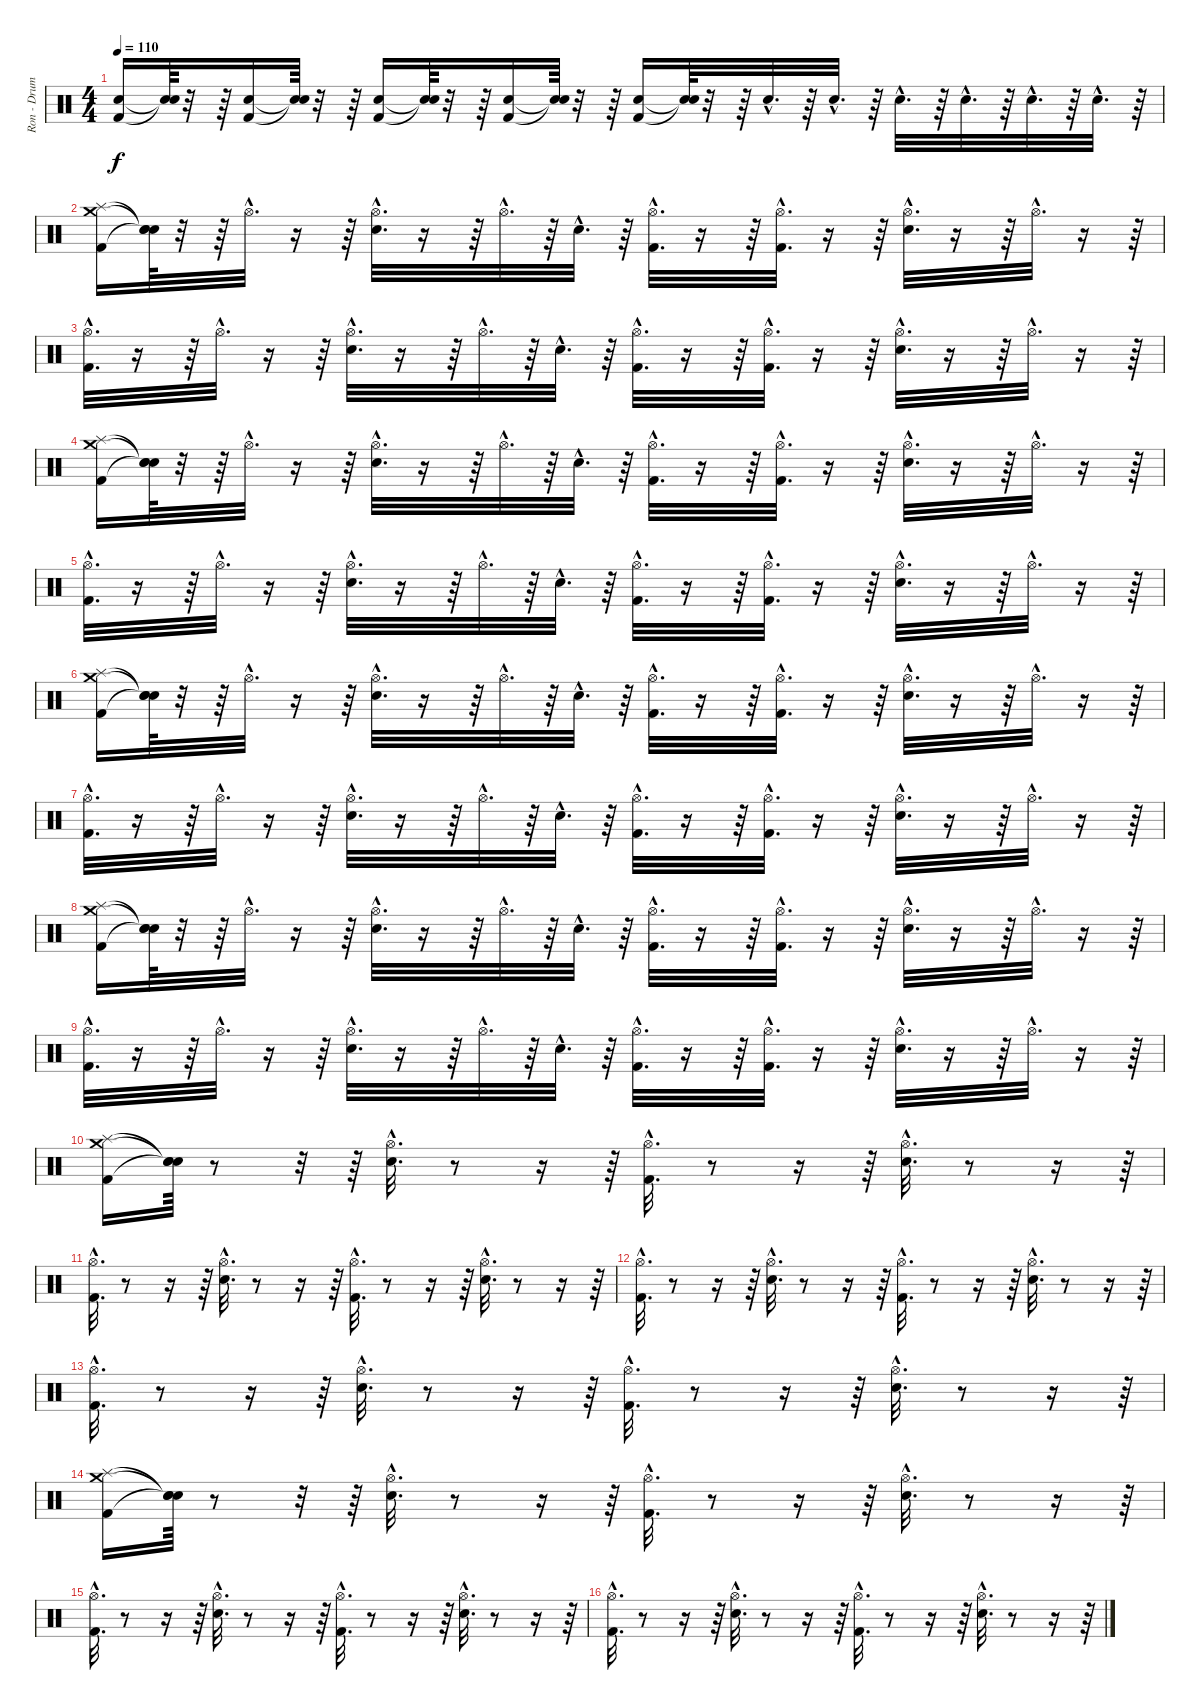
\track ("Ron - Drums" "Ron - Drum") {instrument percussion}
\staff {score}
\articulation defaults
\ts (4 4)
\tempo 110
\clef neutral
\ks c
("Electric Snare (hit)" "Kick (hit) 2").16{dy f} ("Snare (hit)"{t} "Snare (hit)"{t}).64 r.32 r.64 ("Electric Snare (hit)" "Kick (hit) 2").16 ("Snare (hit)"{t} "Snare (hit)"{t}).64 r.32 r.64 ("Electric Snare (hit)" "Kick (hit) 2").16 ("Snare (hit)"{t} "Snare (hit)"{t}).64 r.32 r.64 ("Electric Snare (hit)" "Kick (hit) 2").16 ("Snare (hit)"{t} "Snare (hit)"{t}).64 r.32 r.64 ("Electric Snare (hit)" "Kick (hit) 2").16 ("Snare (hit)"{t} "Snare (hit)"{t}).64 r.32 r.64 "Electric Snare (hit)"{hac}.32{d} r.64 "Electric Snare (hit)"{hac}.32{d} r.64 "Electric Snare (hit)"{hac}.32{d} r.64 "Electric Snare (hit)"{hac}.32{d} r.64 "Electric Snare (hit)"{hac}.32{d} r.64 "Electric Snare (hit)"{hac}.32{d} r.64 |
("Crash medium (hit)" "Splash (hit)" "Kick (hit) 2").16 ("Snare (hit)"{t} "Snare (hit)"{t} "Snare (hit)"{t}).64 r.32 r.64 "Hi-Hat (open)"{hac}.32{d} r.16 r.64 ("Hi-Hat (open)"{hac} "Electric Snare (hit)"{hac}).32{d} r.16 r.64 "Hi-Hat (open)"{hac}.32{d} r.64 "Electric Snare (hit)"{hac}.32{d} r.64 ("Hi-Hat (open)"{hac} "Kick (hit) 2"{hac}).32{d} r.16 r.64 ("Hi-Hat (open)"{hac} "Kick (hit) 2"{hac}).32{d} r.16 r.64 ("Hi-Hat (open)"{hac} "Electric Snare (hit)"{hac}).32{d} r.16 r.64 "Hi-Hat (open)"{hac}.32{d} r.16 r.64 |
("Hi-Hat (open)"{hac} "Kick (hit) 2"{hac}).32{d} r.16 r.64 "Hi-Hat (open)"{hac}.32{d} r.16 r.64 ("Hi-Hat (open)"{hac} "Electric Snare (hit)"{hac}).32{d} r.16 r.64 "Hi-Hat (open)"{hac}.32{d} r.64 "Electric Snare (hit)"{hac}.32{d} r.64 ("Hi-Hat (open)"{hac} "Kick (hit) 2"{hac}).32{d} r.16 r.64 ("Hi-Hat (open)"{hac} "Kick (hit) 2"{hac}).32{d} r.16 r.64 ("Hi-Hat (open)"{hac} "Electric Snare (hit)"{hac}).32{d} r.16 r.64 "Hi-Hat (open)"{hac}.32{d} r.16 r.64 |
("Crash medium (hit)" "Splash (hit)" "Kick (hit) 2").16 ("Snare (hit)"{t} "Snare (hit)"{t} "Snare (hit)"{t}).64 r.32 r.64 "Hi-Hat (open)"{hac}.32{d} r.16 r.64 ("Hi-Hat (open)"{hac} "Electric Snare (hit)"{hac}).32{d} r.16 r.64 "Hi-Hat (open)"{hac}.32{d} r.64 "Electric Snare (hit)"{hac}.32{d} r.64 ("Hi-Hat (open)"{hac} "Kick (hit) 2"{hac}).32{d} r.16 r.64 ("Hi-Hat (open)"{hac} "Kick (hit) 2"{hac}).32{d} r.16 r.64 ("Hi-Hat (open)"{hac} "Electric Snare (hit)"{hac}).32{d} r.16 r.64 "Hi-Hat (open)"{hac}.32{d} r.16 r.64 |
("Hi-Hat (open)"{hac} "Kick (hit) 2"{hac}).32{d} r.16 r.64 "Hi-Hat (open)"{hac}.32{d} r.16 r.64 ("Hi-Hat (open)"{hac} "Electric Snare (hit)"{hac}).32{d} r.16 r.64 "Hi-Hat (open)"{hac}.32{d} r.64 "Electric Snare (hit)"{hac}.32{d} r.64 ("Hi-Hat (open)"{hac} "Kick (hit) 2"{hac}).32{d} r.16 r.64 ("Hi-Hat (open)"{hac} "Kick (hit) 2"{hac}).32{d} r.16 r.64 ("Hi-Hat (open)"{hac} "Electric Snare (hit)"{hac}).32{d} r.16 r.64 "Hi-Hat (open)"{hac}.32{d} r.16 r.64 |
("Crash medium (hit)" "Splash (hit)" "Kick (hit) 2").16 ("Snare (hit)"{t} "Snare (hit)"{t} "Snare (hit)"{t}).64 r.32 r.64 "Hi-Hat (open)"{hac}.32{d} r.16 r.64 ("Hi-Hat (open)"{hac} "Electric Snare (hit)"{hac}).32{d} r.16 r.64 "Hi-Hat (open)"{hac}.32{d} r.64 "Electric Snare (hit)"{hac}.32{d} r.64 ("Hi-Hat (open)"{hac} "Kick (hit) 2"{hac}).32{d} r.16 r.64 ("Hi-Hat (open)"{hac} "Kick (hit) 2"{hac}).32{d} r.16 r.64 ("Hi-Hat (open)"{hac} "Electric Snare (hit)"{hac}).32{d} r.16 r.64 "Hi-Hat (open)"{hac}.32{d} r.16 r.64 |
("Hi-Hat (open)"{hac} "Kick (hit) 2"{hac}).32{d} r.16 r.64 "Hi-Hat (open)"{hac}.32{d} r.16 r.64 ("Hi-Hat (open)"{hac} "Electric Snare (hit)"{hac}).32{d} r.16 r.64 "Hi-Hat (open)"{hac}.32{d} r.64 "Electric Snare (hit)"{hac}.32{d} r.64 ("Hi-Hat (open)"{hac} "Kick (hit) 2"{hac}).32{d} r.16 r.64 ("Hi-Hat (open)"{hac} "Kick (hit) 2"{hac}).32{d} r.16 r.64 ("Hi-Hat (open)"{hac} "Electric Snare (hit)"{hac}).32{d} r.16 r.64 "Hi-Hat (open)"{hac}.32{d} r.16 r.64 |
("Crash medium (hit)" "Splash (hit)" "Kick (hit) 2").16 ("Snare (hit)"{t} "Snare (hit)"{t} "Snare (hit)"{t}).64 r.32 r.64 "Hi-Hat (open)"{hac}.32{d} r.16 r.64 ("Hi-Hat (open)"{hac} "Electric Snare (hit)"{hac}).32{d} r.16 r.64 "Hi-Hat (open)"{hac}.32{d} r.64 "Electric Snare (hit)"{hac}.32{d} r.64 ("Hi-Hat (open)"{hac} "Kick (hit) 2"{hac}).32{d} r.16 r.64 ("Hi-Hat (open)"{hac} "Kick (hit) 2"{hac}).32{d} r.16 r.64 ("Hi-Hat (open)"{hac} "Electric Snare (hit)"{hac}).32{d} r.16 r.64 "Hi-Hat (open)"{hac}.32{d} r.16 r.64 |
("Hi-Hat (open)"{hac} "Kick (hit) 2"{hac}).32{d} r.16 r.64 "Hi-Hat (open)"{hac}.32{d} r.16 r.64 ("Hi-Hat (open)"{hac} "Electric Snare (hit)"{hac}).32{d} r.16 r.64 "Hi-Hat (open)"{hac}.32{d} r.64 "Electric Snare (hit)"{hac}.32{d} r.64 ("Hi-Hat (open)"{hac} "Kick (hit) 2"{hac}).32{d} r.16 r.64 ("Hi-Hat (open)"{hac} "Kick (hit) 2"{hac}).32{d} r.16 r.64 ("Hi-Hat (open)"{hac} "Electric Snare (hit)"{hac}).32{d} r.16 r.64 "Hi-Hat (open)"{hac}.32{d} r.16 r.64 |
("Crash medium (hit)" "Splash (hit)" "Kick (hit) 2").16 ("Snare (hit)"{t} "Snare (hit)"{t} "Snare (hit)"{t}).64 r.8 r.32 r.64 ("Electric Snare (hit)"{hac} "Hi-Hat (open)"{hac}).32{d} r.8 r.16 r.64 ("Kick (hit) 2"{hac} "Hi-Hat (open)"{hac}).32{d} r.8 r.16 r.64 ("Electric Snare (hit)"{hac} "Hi-Hat (open)"{hac}).32{d} r.8 r.16 r.64 |
("Kick (hit) 2"{hac} "Hi-Hat (open)"{hac}).32{d} r.8 r.16 r.64 ("Electric Snare (hit)"{hac} "Hi-Hat (open)"{hac}).32{d} r.8 r.16 r.64 ("Kick (hit) 2"{hac} "Hi-Hat (open)"{hac}).32{d} r.8 r.16 r.64 ("Electric Snare (hit)"{hac} "Hi-Hat (open)"{hac}).32{d} r.8 r.16 r.64 |
("Kick (hit) 2"{hac} "Hi-Hat (open)"{hac}).32{d} r.8 r.16 r.64 ("Electric Snare (hit)"{hac} "Hi-Hat (open)"{hac}).32{d} r.8 r.16 r.64 ("Kick (hit) 2"{hac} "Hi-Hat (open)"{hac}).32{d} r.8 r.16 r.64 ("Electric Snare (hit)"{hac} "Hi-Hat (open)"{hac}).32{d} r.8 r.16 r.64 |
("Kick (hit) 2"{hac} "Hi-Hat (open)"{hac}).32{d} r.8 r.16 r.64 ("Electric Snare (hit)"{hac} "Hi-Hat (open)"{hac}).32{d} r.8 r.16 r.64 ("Kick (hit) 2"{hac} "Hi-Hat (open)"{hac}).32{d} r.8 r.16 r.64 ("Electric Snare (hit)"{hac} "Hi-Hat (open)"{hac}).32{d} r.8 r.16 r.64 |
("Crash medium (hit)" "Splash (hit)" "Kick (hit) 2").16 ("Snare (hit)"{t} "Snare (hit)"{t} "Snare (hit)"{t}).64 r.8 r.32 r.64 ("Electric Snare (hit)"{hac} "Hi-Hat (open)"{hac}).32{d} r.8 r.16 r.64 ("Kick (hit) 2"{hac} "Hi-Hat (open)"{hac}).32{d} r.8 r.16 r.64 ("Electric Snare (hit)"{hac} "Hi-Hat (open)"{hac}).32{d} r.8 r.16 r.64 |
("Kick (hit) 2"{hac} "Hi-Hat (open)"{hac}).32{d} r.8 r.16 r.64 ("Electric Snare (hit)"{hac} "Hi-Hat (open)"{hac}).32{d} r.8 r.16 r.64 ("Kick (hit) 2"{hac} "Hi-Hat (open)"{hac}).32{d} r.8 r.16 r.64 ("Electric Snare (hit)"{hac} "Hi-Hat (open)"{hac}).32{d} r.8 r.16 r.64 |
("Kick (hit) 2"{hac} "Hi-Hat (open)"{hac}).32{d} r.8 r.16 r.64 ("Electric Snare (hit)"{hac} "Hi-Hat (open)"{hac}).32{d} r.8 r.16 r.64 ("Kick (hit) 2"{hac} "Hi-Hat (open)"{hac}).32{d} r.8 r.16 r.64 ("Electric Snare (hit)"{hac} "Hi-Hat (open)"{hac}).32{d} r.8 r.16 r.64
